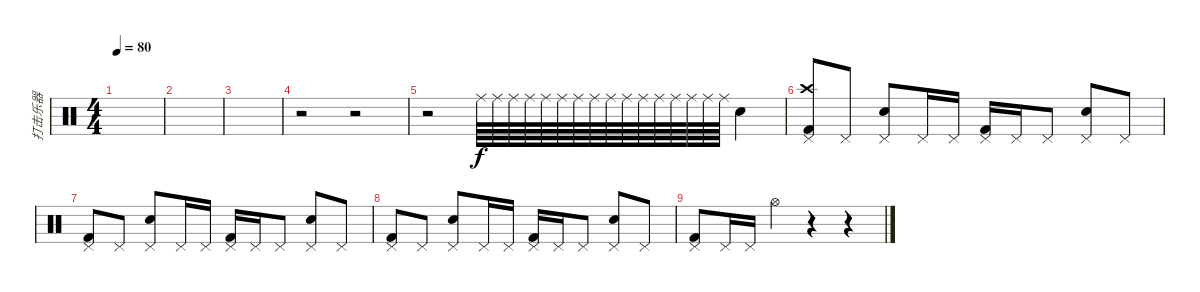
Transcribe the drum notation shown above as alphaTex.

\track ("打击乐器" "打击乐器") {instrument percussion}
\staff {score}
\articulation defaults
\ts (4 4)
\tempo 80
\clef neutral
\ks c
|
|
|
r.2 r.2 |
r.2 "Ride (middle)".64 "Ride (middle)".64 "Ride (middle)".64 "Ride (middle)".64 "Ride (middle)".64 "Ride (middle)".64 "Ride (middle)".64 "Ride (middle)".64 "Ride (middle)".64 "Ride (middle)".64 "Ride (middle)".64 "Ride (middle)".64 "Ride (middle)".64 "Ride (middle)".64 "Ride (middle)".64 "Ride (middle)".64 "Snare (hit) 2".4 |
("Pedal Hi-Hat (hit)" "Crash high (hit)" "Kick (hit) 2").8 "Pedal Hi-Hat (hit)".8 ("Pedal Hi-Hat (hit)" "Snare (hit) 2").8 "Pedal Hi-Hat (hit)".16 "Pedal Hi-Hat (hit)".16 ("Pedal Hi-Hat (hit)" "Kick (hit) 2").16 "Pedal Hi-Hat (hit)".16 "Pedal Hi-Hat (hit)".8 ("Pedal Hi-Hat (hit)" "Snare (hit) 2").8 "Pedal Hi-Hat (hit)".8 |
("Pedal Hi-Hat (hit)" "Kick (hit) 2").8 "Pedal Hi-Hat (hit)".8 ("Pedal Hi-Hat (hit)" "Snare (hit) 2").8 "Pedal Hi-Hat (hit)".16 "Pedal Hi-Hat (hit)".16 ("Pedal Hi-Hat (hit)" "Kick (hit) 2").16 "Pedal Hi-Hat (hit)".16 "Pedal Hi-Hat (hit)".8 ("Pedal Hi-Hat (hit)" "Snare (hit) 2").8 "Pedal Hi-Hat (hit)".8 |
("Pedal Hi-Hat (hit)" "Kick (hit) 2").8 "Pedal Hi-Hat (hit)".8 ("Pedal Hi-Hat (hit)" "Snare (hit) 2").8 "Pedal Hi-Hat (hit)".16 "Pedal Hi-Hat (hit)".16 ("Pedal Hi-Hat (hit)" "Kick (hit) 2").16 "Pedal Hi-Hat (hit)".16 "Pedal Hi-Hat (hit)".8 ("Pedal Hi-Hat (hit)" "Snare (hit) 2").8 "Pedal Hi-Hat (hit)".8 |
("Pedal Hi-Hat (hit)" "Kick (hit) 2").8 "Pedal Hi-Hat (hit)".16 "Pedal Hi-Hat (hit)".16 "Hi-Hat (open)".4 r.4 r.4
